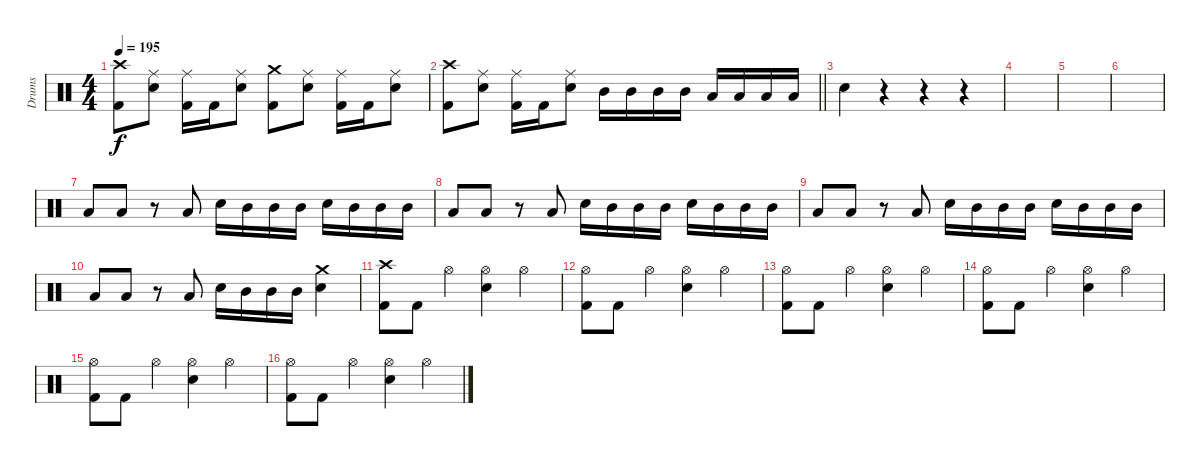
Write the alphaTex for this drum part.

\track ("Drums" "Drums") {instrument percussion}
\staff {score}
\articulation defaults
\ts (4 4)
\tempo 195
\clef neutral
\ks c
("Crash high (hit)" "Kick (hit) 2").8{dy f} ("Ride (middle)" "Electric Snare (hit)").8 ("Ride (middle)" "Kick (hit) 2").16 "Kick (hit) 2".16 ("Ride (middle)" "Electric Snare (hit)").8 ("Crash medium (hit)" "Kick (hit) 2").8 ("Ride (middle)" "Electric Snare (hit)").8 ("Ride (middle)" "Kick (hit) 2").16 "Kick (hit) 2".16 ("Ride (middle)" "Electric Snare (hit)").8 |
\barLineRight lightlight
("Crash high (hit)" "Kick (hit) 2").8 ("Ride (middle)" "Electric Snare (hit)").8 ("Ride (middle)" "Kick (hit) 2").16 "Kick (hit) 2".16 ("Ride (middle)" "Electric Snare (hit)").8 "Mid Tom (hit)".16 "Mid Tom (hit)".16 "Mid Tom (hit)".16 "Mid Tom (hit)".16 "Low Tom (hit)".16 "Low Tom (hit)".16 "Low Tom (hit)".16 "Low Tom (hit)".16 |
\section ("" "")
"Electric Snare (hit)".4 r.4 r.4 r.4 |
|
|
|
"Low Tom (hit)".8 "Low Tom (hit)".8 r.8 "Low Tom (hit)".8 "Electric Snare (hit)".16 "Mid Tom (hit)".16 "Mid Tom (hit)".16 "Mid Tom (hit)".16 "Electric Snare (hit)".16 "Mid Tom (hit)".16 "Mid Tom (hit)".16 "Mid Tom (hit)".16 |
"Low Tom (hit)".8 "Low Tom (hit)".8 r.8 "Low Tom (hit)".8 "Electric Snare (hit)".16 "Mid Tom (hit)".16 "Mid Tom (hit)".16 "Mid Tom (hit)".16 "Electric Snare (hit)".16 "Mid Tom (hit)".16 "Mid Tom (hit)".16 "Mid Tom (hit)".16 |
"Low Tom (hit)".8 "Low Tom (hit)".8 r.8 "Low Tom (hit)".8 "Electric Snare (hit)".16 "Mid Tom (hit)".16 "Mid Tom (hit)".16 "Mid Tom (hit)".16 "Electric Snare (hit)".16 "Mid Tom (hit)".16 "Mid Tom (hit)".16 "Mid Tom (hit)".16 |
"Low Tom (hit)".8 "Low Tom (hit)".8 r.8 "Low Tom (hit)".8 "Electric Snare (hit)".16 "Mid Tom (hit)".16 "Mid Tom (hit)".16 "Mid Tom (hit)".16 ("Crash medium (hit)" "Electric Snare (hit)").4 |
("Crash high (hit)" "Kick (hit) 2").8 "Kick (hit) 2".8 "Hi-Hat (open)".4 ("Hi-Hat (open)" "Electric Snare (hit)").4 "Hi-Hat (open)".4 |
("Hi-Hat (open)" "Kick (hit) 2").8 "Kick (hit) 2".8 "Hi-Hat (open)".4 ("Hi-Hat (open)" "Electric Snare (hit)").4 "Hi-Hat (open)".4 |
("Hi-Hat (open)" "Kick (hit) 2").8 "Kick (hit) 2".8 "Hi-Hat (open)".4 ("Hi-Hat (open)" "Electric Snare (hit)").4 "Hi-Hat (open)".4 |
("Hi-Hat (open)" "Kick (hit) 2").8 "Kick (hit) 2".8 "Hi-Hat (open)".4 ("Hi-Hat (open)" "Electric Snare (hit)").4 "Hi-Hat (open)".4 |
("Hi-Hat (open)" "Kick (hit) 2").8 "Kick (hit) 2".8 "Hi-Hat (open)".4 ("Hi-Hat (open)" "Electric Snare (hit)").4 "Hi-Hat (open)".4 |
("Hi-Hat (open)" "Kick (hit) 2").8 "Kick (hit) 2".8 "Hi-Hat (open)".4 ("Hi-Hat (open)" "Electric Snare (hit)").4 "Hi-Hat (open)".4
